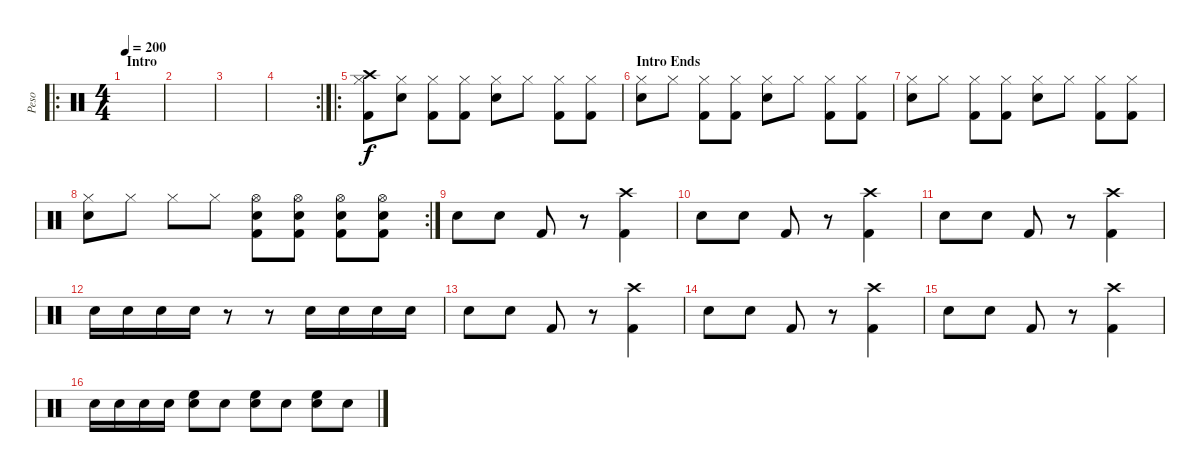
\track ("Peso" "Peso") {instrument percussion}
\staff {score}
\articulation defaults
\ro
\ts (4 4)
\section ("" "Intro")
\tempo 200
\clef neutral
\ks c
|
|
|
\rc 2
|
\ro
("Crash high (hit)" "Hi-Hat (closed)" "Kick (hit) 2").8 ("Hi-Hat (closed)" "Snare (hit) 2").8 ("Hi-Hat (closed)" "Kick (hit) 2").8 ("Hi-Hat (closed)" "Kick (hit) 2").8 ("Hi-Hat (closed)" "Snare (hit) 2").8 "Hi-Hat (closed)".8 ("Hi-Hat (closed)" "Kick (hit) 2").8 ("Hi-Hat (closed)" "Kick (hit) 2").8 |
\section ("" "Intro Ends")
("Hi-Hat (closed)" "Snare (hit) 2").8 "Hi-Hat (closed)".8 ("Hi-Hat (closed)" "Kick (hit) 2").8 ("Hi-Hat (closed)" "Kick (hit) 2").8 ("Hi-Hat (closed)" "Snare (hit) 2").8 "Hi-Hat (closed)".8 ("Hi-Hat (closed)" "Kick (hit) 2").8 ("Hi-Hat (closed)" "Kick (hit) 2").8 |
("Hi-Hat (closed)" "Snare (hit) 2").8 "Hi-Hat (closed)".8 ("Hi-Hat (closed)" "Kick (hit) 2").8 ("Hi-Hat (closed)" "Kick (hit) 2").8 ("Hi-Hat (closed)" "Snare (hit) 2").8 "Hi-Hat (closed)".8 ("Hi-Hat (closed)" "Kick (hit) 2").8 ("Hi-Hat (closed)" "Kick (hit) 2").8 |
\rc 2
("Hi-Hat (closed)" "Snare (hit) 2").8 "Hi-Hat (closed)".8 "Hi-Hat (closed)".8 "Hi-Hat (closed)".8 ("Hi-Hat (open)" "Snare (hit) 2" "Kick (hit) 2").8 ("Hi-Hat (open)" "Snare (hit) 2" "Kick (hit) 2").8 ("Hi-Hat (open)" "Snare (hit) 2" "Kick (hit) 2").8 ("Hi-Hat (open)" "Snare (hit) 2" "Kick (hit) 2").8 |
"Snare (hit) 2".8 "Snare (hit) 2".8 "Kick (hit) 2".8 r.8 ("Crash high (hit)" "Kick (hit) 2").4 |
"Snare (hit) 2".8 "Snare (hit) 2".8 "Kick (hit) 2".8 r.8 ("Crash high (hit)" "Kick (hit) 2").4 |
"Snare (hit) 2".8 "Snare (hit) 2".8 "Kick (hit) 2".8 r.8 ("Crash high (hit)" "Kick (hit) 2").4 |
"Snare (hit) 2".16 "Snare (hit) 2".16 "Snare (hit) 2".16 "Snare (hit) 2".16 r.8 r.8 "Snare (hit) 2".16 "Snare (hit) 2".16 "Snare (hit) 2".16 "Snare (hit) 2".16 |
"Snare (hit) 2".8 "Snare (hit) 2".8 "Kick (hit) 2".8 r.8 ("Crash high (hit)" "Kick (hit) 2").4 |
"Snare (hit) 2".8 "Snare (hit) 2".8 "Kick (hit) 2".8 r.8 ("Crash high (hit)" "Kick (hit) 2").4 |
"Snare (hit) 2".8 "Snare (hit) 2".8 "Kick (hit) 2".8 r.8 ("Crash high (hit)" "Kick (hit) 2").4 |
"Snare (hit) 2".16 "Snare (hit) 2".16 "Snare (hit) 2".16 "Snare (hit) 2".16 ("Snare (hit) 2" "High Floor Tom (hit)").8 "Snare (hit) 2".8 ("Snare (hit) 2" "High Floor Tom (hit)").8 "Snare (hit) 2".8 ("Snare (hit) 2" "High Floor Tom (hit)").8 "Snare (hit) 2".8
